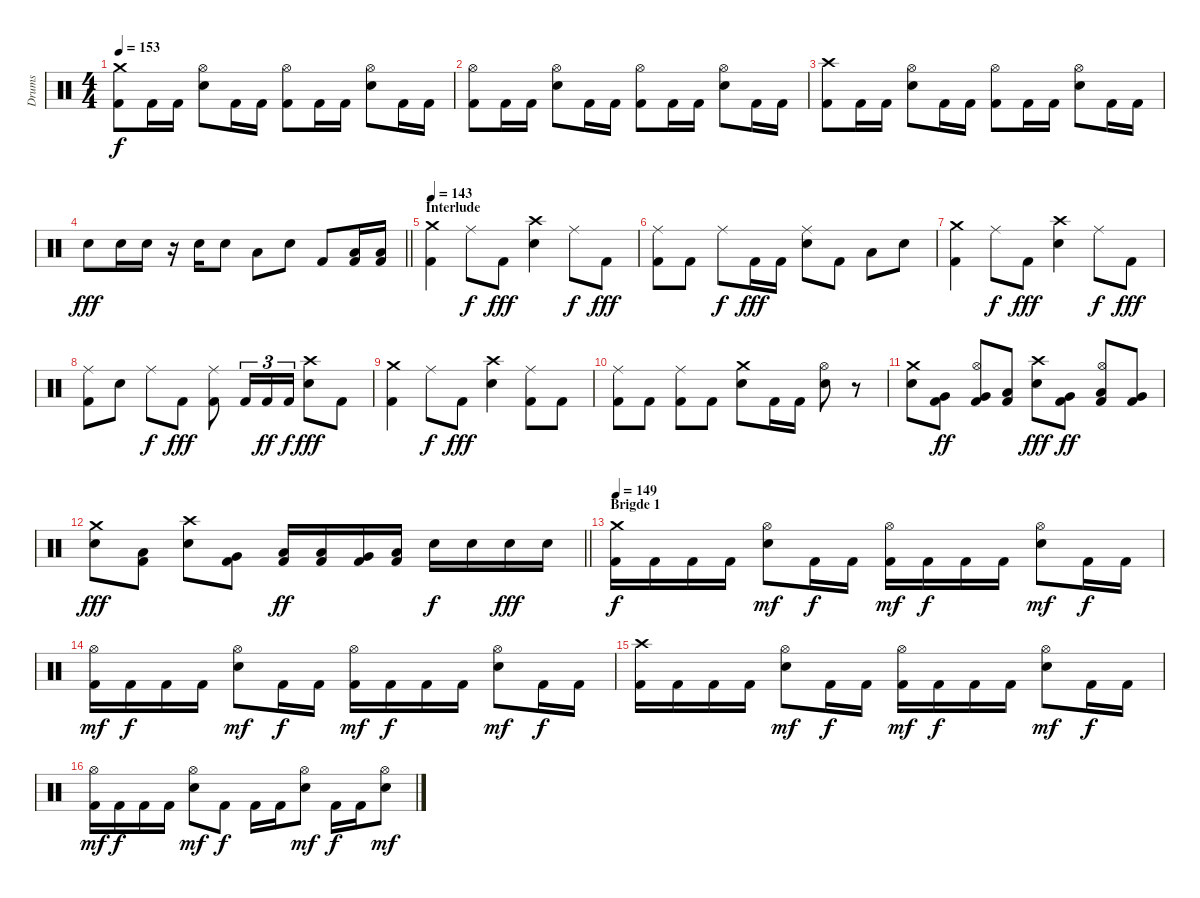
\track ("Drums" "Drums") {instrument percussion}
\staff
\articulation defaults
\ts (4 4)
\tempo 153
\clef neutral
\ks c
("Kick (hit) 2" "Crash medium (hit)").8{dy f} "Kick (hit) 2".16 "Kick (hit) 2".16 ("Electric Snare (hit)" "Hi-Hat (open)").8 "Kick (hit) 2".16 "Kick (hit) 2".16 ("Kick (hit) 2" "Hi-Hat (open)").8 "Kick (hit) 2".16 "Kick (hit) 2".16 ("Electric Snare (hit)" "Hi-Hat (open)").8 "Kick (hit) 2".16 "Kick (hit) 2".16 |
("Kick (hit) 2" "Hi-Hat (open)").8 "Kick (hit) 2".16 "Kick (hit) 2".16 ("Electric Snare (hit)" "Hi-Hat (open)").8 "Kick (hit) 2".16 "Kick (hit) 2".16 ("Kick (hit) 2" "Hi-Hat (open)").8 "Kick (hit) 2".16 "Kick (hit) 2".16 ("Electric Snare (hit)" "Hi-Hat (open)").8 "Kick (hit) 2".16 "Kick (hit) 2".16 |
("Kick (hit) 2" "Crash high (hit)").8 "Kick (hit) 2".16 "Kick (hit) 2".16 ("Electric Snare (hit)" "Hi-Hat (open)").8 "Kick (hit) 2".16 "Kick (hit) 2".16 ("Kick (hit) 2" "Hi-Hat (open)").8 "Kick (hit) 2".16 "Kick (hit) 2".16 ("Electric Snare (hit)" "Hi-Hat (open)").8 "Kick (hit) 2".16 "Kick (hit) 2".16 |
\barLineRight lightlight "Electric Snare (hit)".8{dy fff} "Electric Snare (hit)".16 "Electric Snare (hit)".16
r.16 "Electric Snare (hit)".16 "Electric Snare (hit)".8 "Low Floor Tom (hit)".8 "Electric Snare (hit)".8 "Kick (hit) 2".8 ("Kick (hit) 2" "Low Tom (hit)").16 ("Kick (hit) 2" "Low Tom (hit)").16 |
\section ("" "Interlude ")
\tempo 143
("Kick (hit) 2" "Crash medium (hit)").4 "Ride (middle)".8{dy f} "Kick (hit) 2".8{dy fff} ("Electric Snare (hit)" "Crash high (hit)").4 "Ride (middle)".8{dy f} "Kick (hit) 2".8{dy fff} |
("Kick (hit) 2" "Ride (middle)").8 "Kick (hit) 2".8 "Ride (middle)".8{dy f} "Kick (hit) 2".16{dy fff} "Kick (hit) 2".16 ("Electric Snare (hit)" "Ride (middle)").8 "Kick (hit) 2".8 "Low Floor Tom (hit)".8 "Electric Snare (hit)".8 |
("Kick (hit) 2" "Crash medium (hit)").4 "Ride (middle)".8{dy f} "Kick (hit) 2".8{dy fff} ("Electric Snare (hit)" "Crash high (hit)").4 "Ride (middle)".8{dy f} "Kick (hit) 2".8{dy fff} |
("Kick (hit) 2" "Ride (middle)").8 "Electric Snare (hit)".8 "Ride (middle)".8{dy f} "Kick (hit) 2".8{dy fff} ("Kick (hit) 2" "Ride (middle)").8 "Kick (hit) 2".16{tu (3 2)} "Kick (hit) 2".16{tu (3 2) dy ff} "Kick (hit) 2".16{tu (3 2) dy f} ("Electric Snare (hit)" "Crash high (hit)").8{dy fff} "Kick (hit) 2".8 |
("Kick (hit) 2" "Crash medium (hit)").4 "Ride (middle)".8{dy f} "Kick (hit) 2".8{dy fff} ("Electric Snare (hit)" "Crash high (hit)").4 ("Kick (hit) 2" "Ride (middle)").8 "Kick (hit) 2".8 |
("Kick (hit) 2" "Ride (middle)").8 "Kick (hit) 2".8 ("Kick (hit) 2" "Ride (middle)").8 "Kick (hit) 2".8 ("Electric Snare (hit)" "Crash medium (hit)").8 "Kick (hit) 2".16 "Kick (hit) 2".16 ("Electric Snare (hit)" "Hi-Hat (open)").8 r.8 |
("Electric Snare (hit)" "Crash medium (hit)").8 ("Kick (hit) 2" "Very Low Tom (hit)").8{dy ff} ("Kick (hit) 2" "Very Low Tom (hit)" "Hi-Hat (open)").8 ("Kick (hit) 2" "Low Floor Tom (hit)").8 ("Electric Snare (hit)" "Crash high (hit)").8{dy fff} ("Kick (hit) 2" "Very Low Tom (hit)").8{dy ff} ("Kick (hit) 2" "Low Tom (hit)" "Hi-Hat (open)").8 ("Kick (hit) 2" "Very Low Tom (hit)").8 |
\barLineRight lightlight
("Electric Snare (hit)" "Crash medium (hit)").8{dy fff} ("Kick (hit) 2" "Low Tom (hit)").8 ("Electric Snare (hit)" "Crash high (hit)").8 ("Kick (hit) 2" "Very Low Tom (hit)").8 ("Kick (hit) 2" "Low Tom (hit)").16{dy ff} ("Kick (hit) 2" "Low Tom (hit)").16 ("Kick (hit) 2" "Very Low Tom (hit)").16 ("Kick (hit) 2" "Low Floor Tom (hit)").16 "Electric Snare (hit)".16{dy f} "Electric Snare (hit)".16 "Electric Snare (hit)".16{dy fff} "Electric Snare (hit)".16 |
\section ("" "Brigde 1")
\tempo 149
("Kick (hit) 2" "Crash medium (hit)").16{dy f} "Kick (hit) 2".16 "Kick (hit) 2".16 "Kick (hit) 2".16 ("Electric Snare (hit)" "Hi-Hat (open)").8{dy mf} "Kick (hit) 2".16{dy f} "Kick (hit) 2".16 ("Kick (hit) 2" "Hi-Hat (open)").16{dy mf} "Kick (hit) 2".16{dy f} "Kick (hit) 2".16 "Kick (hit) 2".16 ("Electric Snare (hit)" "Hi-Hat (open)").8{dy mf} "Kick (hit) 2".16{dy f} "Kick (hit) 2".16 |
("Kick (hit) 2" "Hi-Hat (open)").16{dy mf} "Kick (hit) 2".16{dy f} "Kick (hit) 2".16 "Kick (hit) 2".16 ("Electric Snare (hit)" "Hi-Hat (open)").8{dy mf} "Kick (hit) 2".16{dy f} "Kick (hit) 2".16 ("Kick (hit) 2" "Hi-Hat (open)").16{dy mf} "Kick (hit) 2".16{dy f} "Kick (hit) 2".16 "Kick (hit) 2".16 ("Electric Snare (hit)" "Hi-Hat (open)").8{dy mf} "Kick (hit) 2".16{dy f} "Kick (hit) 2".16 |
("Kick (hit) 2" "Crash high (hit)").16 "Kick (hit) 2".16 "Kick (hit) 2".16 "Kick (hit) 2".16 ("Electric Snare (hit)" "Hi-Hat (open)").8{dy mf} "Kick (hit) 2".16{dy f} "Kick (hit) 2".16 ("Kick (hit) 2" "Hi-Hat (open)").16{dy mf} "Kick (hit) 2".16{dy f} "Kick (hit) 2".16 "Kick (hit) 2".16 ("Electric Snare (hit)" "Hi-Hat (open)").8{dy mf} "Kick (hit) 2".16{dy f} "Kick (hit) 2".16 |
("Kick (hit) 2" "Hi-Hat (open)").16{dy mf} "Kick (hit) 2".16{dy f} "Kick (hit) 2".16 "Kick (hit) 2".16 ("Electric Snare (hit)" "Hi-Hat (open)").8{dy mf} "Kick (hit) 2".8{dy f} "Kick (hit) 2".16 "Kick (hit) 2".16 ("Electric Snare (hit)" "Hi-Hat (open)").8{dy mf} "Kick (hit) 2".16{dy f} "Kick (hit) 2".16 ("Electric Snare (hit)" "Hi-Hat (open)").8{dy mf}
